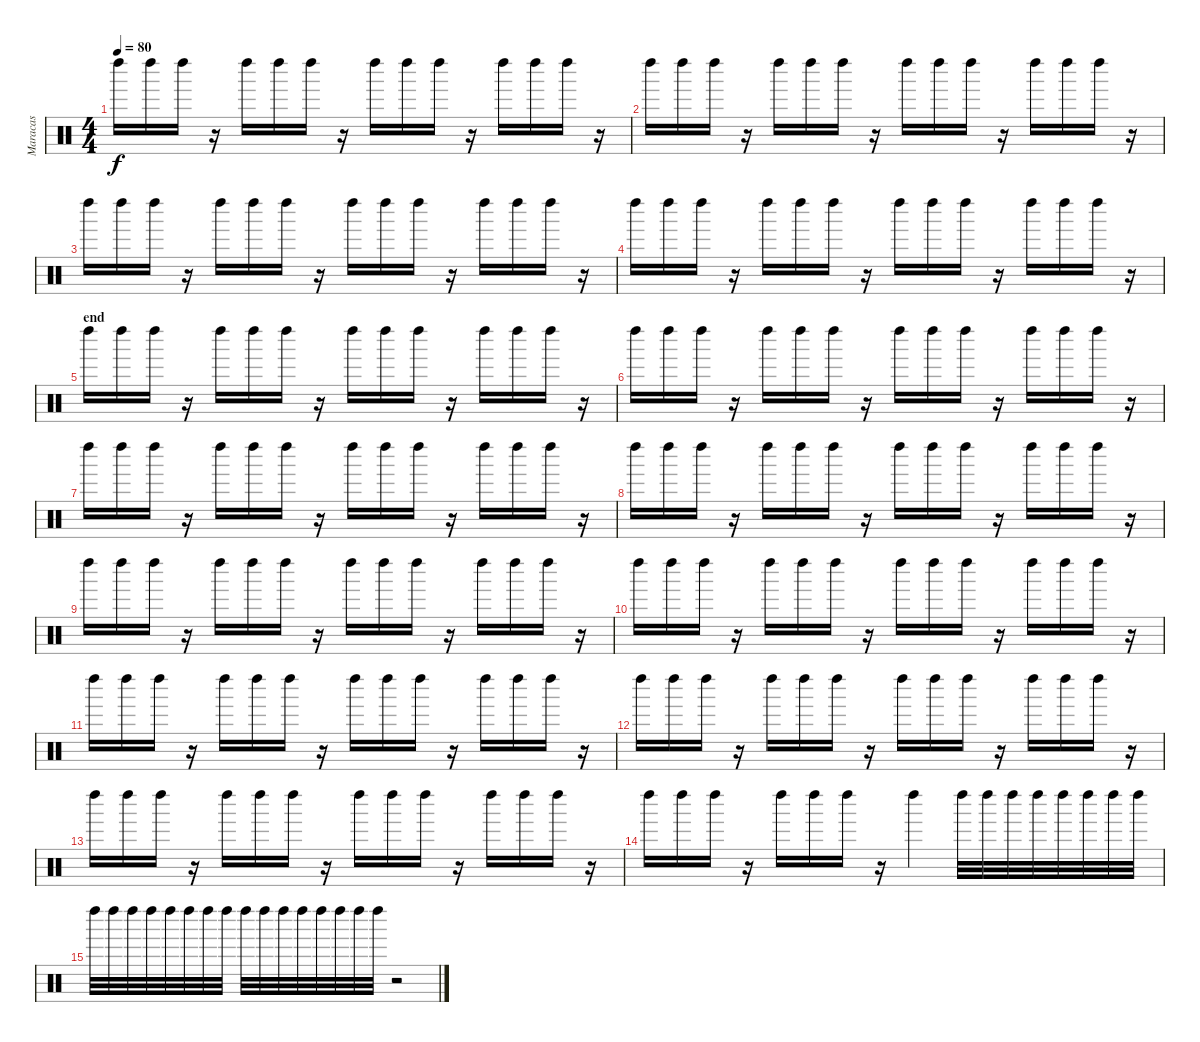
\track ("Maracas" "Maracas") {instrument percussion}
\staff {score}
\articulation defaults
\ts (4 4)
\tempo 80
\clef neutral
\ks c "Left Maraca (hit)".16{dy f} "Left Maraca (hit)".16 "Left Maraca (hit)".16
r.16 "Left Maraca (hit)".16 "Left Maraca (hit)".16 "Left Maraca (hit)".16 r.16 "Left Maraca (hit)".16 "Left Maraca (hit)".16 "Left Maraca (hit)".16 r.16 "Left Maraca (hit)".16 "Left Maraca (hit)".16 "Left Maraca (hit)".16 r.16 |
"Left Maraca (hit)".16 "Left Maraca (hit)".16 "Left Maraca (hit)".16 r.16 "Left Maraca (hit)".16 "Left Maraca (hit)".16 "Left Maraca (hit)".16 r.16 "Left Maraca (hit)".16 "Left Maraca (hit)".16 "Left Maraca (hit)".16 r.16 "Left Maraca (hit)".16 "Left Maraca (hit)".16 "Left Maraca (hit)".16 r.16 |
"Left Maraca (hit)".16 "Left Maraca (hit)".16 "Left Maraca (hit)".16 r.16 "Left Maraca (hit)".16 "Left Maraca (hit)".16 "Left Maraca (hit)".16 r.16 "Left Maraca (hit)".16 "Left Maraca (hit)".16 "Left Maraca (hit)".16 r.16 "Left Maraca (hit)".16 "Left Maraca (hit)".16 "Left Maraca (hit)".16 r.16 |
"Left Maraca (hit)".16 "Left Maraca (hit)".16 "Left Maraca (hit)".16 r.16 "Left Maraca (hit)".16 "Left Maraca (hit)".16 "Left Maraca (hit)".16 r.16 "Left Maraca (hit)".16 "Left Maraca (hit)".16 "Left Maraca (hit)".16 r.16 "Left Maraca (hit)".16 "Left Maraca (hit)".16 "Left Maraca (hit)".16 r.16 |
\section ("" "end")
"Left Maraca (hit)".16 "Left Maraca (hit)".16 "Left Maraca (hit)".16 r.16 "Left Maraca (hit)".16 "Left Maraca (hit)".16 "Left Maraca (hit)".16 r.16 "Left Maraca (hit)".16 "Left Maraca (hit)".16 "Left Maraca (hit)".16 r.16 "Left Maraca (hit)".16 "Left Maraca (hit)".16 "Left Maraca (hit)".16 r.16 |
"Left Maraca (hit)".16 "Left Maraca (hit)".16 "Left Maraca (hit)".16 r.16 "Left Maraca (hit)".16 "Left Maraca (hit)".16 "Left Maraca (hit)".16 r.16 "Left Maraca (hit)".16 "Left Maraca (hit)".16 "Left Maraca (hit)".16 r.16 "Left Maraca (hit)".16 "Left Maraca (hit)".16 "Left Maraca (hit)".16 r.16 |
"Left Maraca (hit)".16 "Left Maraca (hit)".16 "Left Maraca (hit)".16 r.16 "Left Maraca (hit)".16 "Left Maraca (hit)".16 "Left Maraca (hit)".16 r.16 "Left Maraca (hit)".16 "Left Maraca (hit)".16 "Left Maraca (hit)".16 r.16 "Left Maraca (hit)".16 "Left Maraca (hit)".16 "Left Maraca (hit)".16 r.16 |
"Left Maraca (hit)".16 "Left Maraca (hit)".16 "Left Maraca (hit)".16 r.16 "Left Maraca (hit)".16 "Left Maraca (hit)".16 "Left Maraca (hit)".16 r.16 "Left Maraca (hit)".16 "Left Maraca (hit)".16 "Left Maraca (hit)".16 r.16 "Left Maraca (hit)".16 "Left Maraca (hit)".16 "Left Maraca (hit)".16 r.16 |
"Left Maraca (hit)".16 "Left Maraca (hit)".16 "Left Maraca (hit)".16 r.16 "Left Maraca (hit)".16 "Left Maraca (hit)".16 "Left Maraca (hit)".16 r.16 "Left Maraca (hit)".16 "Left Maraca (hit)".16 "Left Maraca (hit)".16 r.16 "Left Maraca (hit)".16 "Left Maraca (hit)".16 "Left Maraca (hit)".16 r.16 |
"Left Maraca (hit)".16 "Left Maraca (hit)".16 "Left Maraca (hit)".16 r.16 "Left Maraca (hit)".16 "Left Maraca (hit)".16 "Left Maraca (hit)".16 r.16 "Left Maraca (hit)".16 "Left Maraca (hit)".16 "Left Maraca (hit)".16 r.16 "Left Maraca (hit)".16 "Left Maraca (hit)".16 "Left Maraca (hit)".16 r.16 |
"Left Maraca (hit)".16 "Left Maraca (hit)".16 "Left Maraca (hit)".16 r.16 "Left Maraca (hit)".16 "Left Maraca (hit)".16 "Left Maraca (hit)".16 r.16 "Left Maraca (hit)".16 "Left Maraca (hit)".16 "Left Maraca (hit)".16 r.16 "Left Maraca (hit)".16 "Left Maraca (hit)".16 "Left Maraca (hit)".16 r.16 |
"Left Maraca (hit)".16 "Left Maraca (hit)".16 "Left Maraca (hit)".16 r.16 "Left Maraca (hit)".16 "Left Maraca (hit)".16 "Left Maraca (hit)".16 r.16 "Left Maraca (hit)".16 "Left Maraca (hit)".16 "Left Maraca (hit)".16 r.16 "Left Maraca (hit)".16 "Left Maraca (hit)".16 "Left Maraca (hit)".16 r.16 |
"Left Maraca (hit)".16 "Left Maraca (hit)".16 "Left Maraca (hit)".16 r.16 "Left Maraca (hit)".16 "Left Maraca (hit)".16 "Left Maraca (hit)".16 r.16 "Left Maraca (hit)".16 "Left Maraca (hit)".16 "Left Maraca (hit)".16 r.16 "Left Maraca (hit)".16 "Left Maraca (hit)".16 "Left Maraca (hit)".16 r.16 |
"Left Maraca (hit)".16 "Left Maraca (hit)".16 "Left Maraca (hit)".16 r.16 "Left Maraca (hit)".16 "Left Maraca (hit)".16 "Left Maraca (hit)".16 r.16 "Left Maraca (hit)".4 "Left Maraca (hit)".32 "Left Maraca (hit)".32 "Left Maraca (hit)".32 "Left Maraca (hit)".32 "Left Maraca (hit)".32 "Left Maraca (hit)".32 "Left Maraca (hit)".32 "Left Maraca (hit)".32 |
"Left Maraca (hit)".32 "Left Maraca (hit)".32 "Left Maraca (hit)".32 "Left Maraca (hit)".32 "Left Maraca (hit)".32 "Left Maraca (hit)".32 "Left Maraca (hit)".32 "Left Maraca (hit)".32 "Left Maraca (hit)".32 "Left Maraca (hit)".32 "Left Maraca (hit)".32 "Left Maraca (hit)".32 "Left Maraca (hit)".32 "Left Maraca (hit)".32 "Left Maraca (hit)".32 "Left Maraca (hit)".32 r.2
